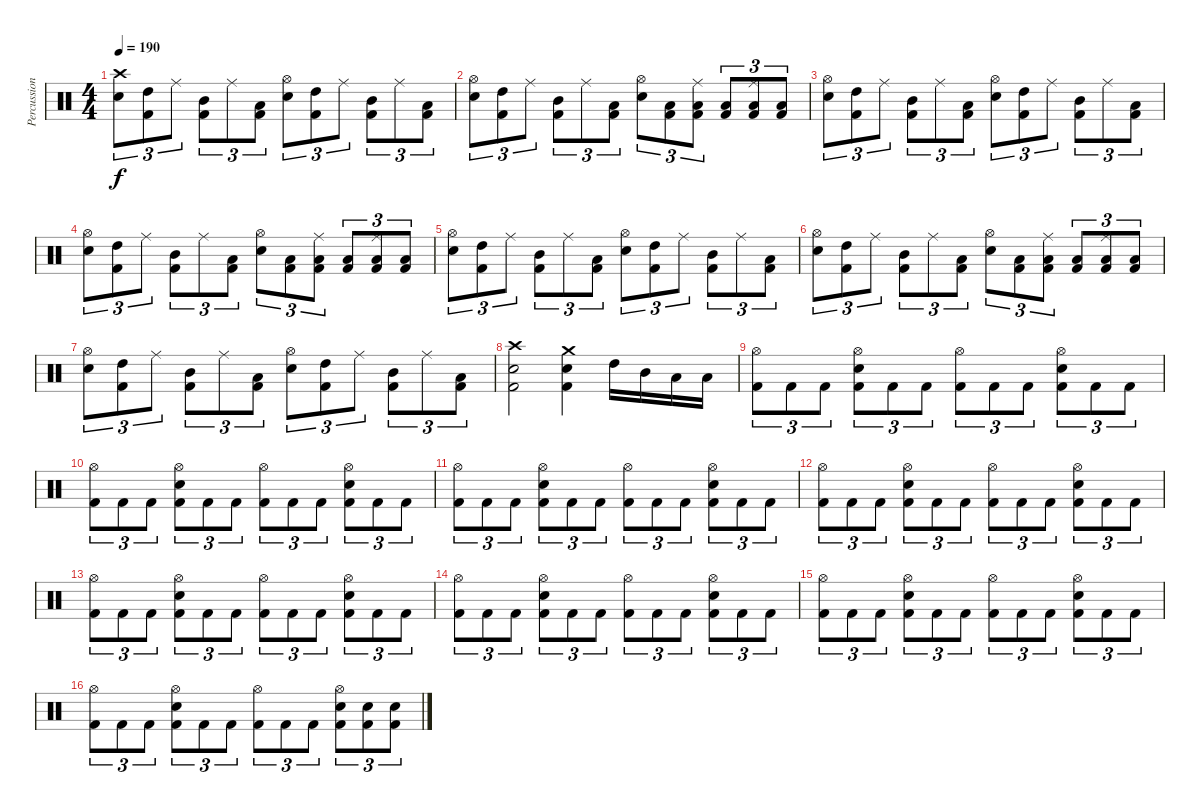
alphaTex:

\track ("Percussions" "Percussion") {instrument percussion}
\staff {score}
\articulation defaults
\ts (4 4)
\tempo 190
\clef neutral
\ks c
("Crash high (hit)" "Snare (hit) 2").8{tu (3 2) dy f} ("High Tom (hit)" "Kick (hit) 2").8{tu (3 2)} "Ride (middle)".8{tu (3 2)} ("Mid Tom (hit)" "Kick (hit) 2").8{tu (3 2)} "Ride (middle)".8{tu (3 2)} ("Low Tom (hit)" "Kick (hit) 2").8{tu (3 2)} ("Hi-Hat (open)" "Snare (hit) 2").8{tu (3 2)} ("High Tom (hit)" "Kick (hit) 2").8{tu (3 2)} "Ride (middle)".8{tu (3 2)} ("Mid Tom (hit)" "Kick (hit) 2").8{tu (3 2)} "Ride (middle)".8{tu (3 2)} ("Low Tom (hit)" "Kick (hit) 2").8{tu (3 2)} |
("Hi-Hat (open)" "Snare (hit) 2").8{tu (3 2)} ("High Tom (hit)" "Kick (hit) 2").8{tu (3 2)} "Ride (middle)".8{tu (3 2)} ("Mid Tom (hit)" "Kick (hit) 2").8{tu (3 2)} "Ride (middle)".8{tu (3 2)} ("Low Tom (hit)" "Kick (hit) 2").8{tu (3 2)} ("Hi-Hat (open)" "Snare (hit) 2").8{tu (3 2)} ("Low Floor Tom (hit)" "Kick (hit) 2").8{tu (3 2)} ("Ride (middle)" "Low Floor Tom (hit)" "Kick (hit) 2").8{tu (3 2)} ("Low Floor Tom (hit)" "Kick (hit) 2").8{tu (3 2)} ("Ride (middle)" "Low Floor Tom (hit)" "Kick (hit) 2").8{tu (3 2)} ("Low Floor Tom (hit)" "Kick (hit) 2").8{tu (3 2)} |
("Hi-Hat (open)" "Snare (hit) 2").8{tu (3 2)} ("High Tom (hit)" "Kick (hit) 2").8{tu (3 2)} "Ride (middle)".8{tu (3 2)} ("Mid Tom (hit)" "Kick (hit) 2").8{tu (3 2)} "Ride (middle)".8{tu (3 2)} ("Low Tom (hit)" "Kick (hit) 2").8{tu (3 2)} ("Hi-Hat (open)" "Snare (hit) 2").8{tu (3 2)} ("High Tom (hit)" "Kick (hit) 2").8{tu (3 2)} "Ride (middle)".8{tu (3 2)} ("Mid Tom (hit)" "Kick (hit) 2").8{tu (3 2)} "Ride (middle)".8{tu (3 2)} ("Low Tom (hit)" "Kick (hit) 2").8{tu (3 2)} |
("Hi-Hat (open)" "Snare (hit) 2").8{tu (3 2)} ("High Tom (hit)" "Kick (hit) 2").8{tu (3 2)} "Ride (middle)".8{tu (3 2)} ("Mid Tom (hit)" "Kick (hit) 2").8{tu (3 2)} "Ride (middle)".8{tu (3 2)} ("Low Tom (hit)" "Kick (hit) 2").8{tu (3 2)} ("Hi-Hat (open)" "Snare (hit) 2").8{tu (3 2)} ("Low Floor Tom (hit)" "Kick (hit) 2").8{tu (3 2)} ("Ride (middle)" "Low Floor Tom (hit)" "Kick (hit) 2").8{tu (3 2)} ("Low Floor Tom (hit)" "Kick (hit) 2").8{tu (3 2)} ("Ride (middle)" "Low Floor Tom (hit)" "Kick (hit) 2").8{tu (3 2)} ("Low Floor Tom (hit)" "Kick (hit) 2").8{tu (3 2)} |
("Hi-Hat (open)" "Snare (hit) 2").8{tu (3 2)} ("High Tom (hit)" "Kick (hit) 2").8{tu (3 2)} "Ride (middle)".8{tu (3 2)} ("Mid Tom (hit)" "Kick (hit) 2").8{tu (3 2)} "Ride (middle)".8{tu (3 2)} ("Low Tom (hit)" "Kick (hit) 2").8{tu (3 2)} ("Hi-Hat (open)" "Snare (hit) 2").8{tu (3 2)} ("High Tom (hit)" "Kick (hit) 2").8{tu (3 2)} "Ride (middle)".8{tu (3 2)} ("Mid Tom (hit)" "Kick (hit) 2").8{tu (3 2)} "Ride (middle)".8{tu (3 2)} ("Low Tom (hit)" "Kick (hit) 2").8{tu (3 2)} |
("Hi-Hat (open)" "Snare (hit) 2").8{tu (3 2)} ("High Tom (hit)" "Kick (hit) 2").8{tu (3 2)} "Ride (middle)".8{tu (3 2)} ("Mid Tom (hit)" "Kick (hit) 2").8{tu (3 2)} "Ride (middle)".8{tu (3 2)} ("Low Tom (hit)" "Kick (hit) 2").8{tu (3 2)} ("Hi-Hat (open)" "Snare (hit) 2").8{tu (3 2)} ("Low Floor Tom (hit)" "Kick (hit) 2").8{tu (3 2)} ("Ride (middle)" "Low Floor Tom (hit)" "Kick (hit) 2").8{tu (3 2)} ("Low Floor Tom (hit)" "Kick (hit) 2").8{tu (3 2)} ("Ride (middle)" "Low Floor Tom (hit)" "Kick (hit) 2").8{tu (3 2)} ("Low Floor Tom (hit)" "Kick (hit) 2").8{tu (3 2)} |
("Hi-Hat (open)" "Snare (hit) 2").8{tu (3 2)} ("High Tom (hit)" "Kick (hit) 2").8{tu (3 2)} "Ride (middle)".8{tu (3 2)} ("Mid Tom (hit)" "Kick (hit) 2").8{tu (3 2)} "Ride (middle)".8{tu (3 2)} ("Low Tom (hit)" "Kick (hit) 2").8{tu (3 2)} ("Hi-Hat (open)" "Snare (hit) 2").8{tu (3 2)} ("High Tom (hit)" "Kick (hit) 2").8{tu (3 2)} "Ride (middle)".8{tu (3 2)} ("Mid Tom (hit)" "Kick (hit) 2").8{tu (3 2)} "Ride (middle)".8{tu (3 2)} ("Low Tom (hit)" "Kick (hit) 2").8{tu (3 2)} |
("Crash high (hit)" "Snare (hit) 2" "Kick (hit) 2").2 ("Crash medium (hit)" "Snare (hit) 2" "Kick (hit) 2").4 "High Tom (hit)".16 "Mid Tom (hit)".16 "Low Tom (hit)".16 "Low Tom (hit)".16 |
("Hi-Hat (open)" "Kick (hit) 2").8{tu (3 2)} "Kick (hit) 2".8{tu (3 2)} "Kick (hit) 2".8{tu (3 2)} ("Hi-Hat (open)" "Snare (hit) 2" "Kick (hit) 2").8{tu (3 2)} "Kick (hit) 2".8{tu (3 2)} "Kick (hit) 2".8{tu (3 2)} ("Hi-Hat (open)" "Kick (hit) 2").8{tu (3 2)} "Kick (hit) 2".8{tu (3 2)} "Kick (hit) 2".8{tu (3 2)} ("Hi-Hat (open)" "Snare (hit) 2" "Kick (hit) 2").8{tu (3 2)} "Kick (hit) 2".8{tu (3 2)} "Kick (hit) 2".8{tu (3 2)} |
("Hi-Hat (open)" "Kick (hit) 2").8{tu (3 2)} "Kick (hit) 2".8{tu (3 2)} "Kick (hit) 2".8{tu (3 2)} ("Hi-Hat (open)" "Snare (hit) 2" "Kick (hit) 2").8{tu (3 2)} "Kick (hit) 2".8{tu (3 2)} "Kick (hit) 2".8{tu (3 2)} ("Hi-Hat (open)" "Kick (hit) 2").8{tu (3 2)} "Kick (hit) 2".8{tu (3 2)} "Kick (hit) 2".8{tu (3 2)} ("Hi-Hat (open)" "Snare (hit) 2" "Kick (hit) 2").8{tu (3 2)} "Kick (hit) 2".8{tu (3 2)} "Kick (hit) 2".8{tu (3 2)} |
("Hi-Hat (open)" "Kick (hit) 2").8{tu (3 2)} "Kick (hit) 2".8{tu (3 2)} "Kick (hit) 2".8{tu (3 2)} ("Hi-Hat (open)" "Snare (hit) 2" "Kick (hit) 2").8{tu (3 2)} "Kick (hit) 2".8{tu (3 2)} "Kick (hit) 2".8{tu (3 2)} ("Hi-Hat (open)" "Kick (hit) 2").8{tu (3 2)} "Kick (hit) 2".8{tu (3 2)} "Kick (hit) 2".8{tu (3 2)} ("Hi-Hat (open)" "Snare (hit) 2" "Kick (hit) 2").8{tu (3 2)} "Kick (hit) 2".8{tu (3 2)} "Kick (hit) 2".8{tu (3 2)} |
("Hi-Hat (open)" "Kick (hit) 2").8{tu (3 2)} "Kick (hit) 2".8{tu (3 2)} "Kick (hit) 2".8{tu (3 2)} ("Hi-Hat (open)" "Snare (hit) 2" "Kick (hit) 2").8{tu (3 2)} "Kick (hit) 2".8{tu (3 2)} "Kick (hit) 2".8{tu (3 2)} ("Hi-Hat (open)" "Kick (hit) 2").8{tu (3 2)} "Kick (hit) 2".8{tu (3 2)} "Kick (hit) 2".8{tu (3 2)} ("Hi-Hat (open)" "Snare (hit) 2" "Kick (hit) 2").8{tu (3 2)} "Kick (hit) 2".8{tu (3 2)} "Kick (hit) 2".8{tu (3 2)} |
("Hi-Hat (open)" "Kick (hit) 2").8{tu (3 2)} "Kick (hit) 2".8{tu (3 2)} "Kick (hit) 2".8{tu (3 2)} ("Hi-Hat (open)" "Snare (hit) 2" "Kick (hit) 2").8{tu (3 2)} "Kick (hit) 2".8{tu (3 2)} "Kick (hit) 2".8{tu (3 2)} ("Hi-Hat (open)" "Kick (hit) 2").8{tu (3 2)} "Kick (hit) 2".8{tu (3 2)} "Kick (hit) 2".8{tu (3 2)} ("Hi-Hat (open)" "Snare (hit) 2" "Kick (hit) 2").8{tu (3 2)} "Kick (hit) 2".8{tu (3 2)} "Kick (hit) 2".8{tu (3 2)} |
("Hi-Hat (open)" "Kick (hit) 2").8{tu (3 2)} "Kick (hit) 2".8{tu (3 2)} "Kick (hit) 2".8{tu (3 2)} ("Hi-Hat (open)" "Snare (hit) 2" "Kick (hit) 2").8{tu (3 2)} "Kick (hit) 2".8{tu (3 2)} "Kick (hit) 2".8{tu (3 2)} ("Hi-Hat (open)" "Kick (hit) 2").8{tu (3 2)} "Kick (hit) 2".8{tu (3 2)} "Kick (hit) 2".8{tu (3 2)} ("Hi-Hat (open)" "Snare (hit) 2" "Kick (hit) 2").8{tu (3 2)} "Kick (hit) 2".8{tu (3 2)} "Kick (hit) 2".8{tu (3 2)} |
("Hi-Hat (open)" "Kick (hit) 2").8{tu (3 2)} "Kick (hit) 2".8{tu (3 2)} "Kick (hit) 2".8{tu (3 2)} ("Hi-Hat (open)" "Snare (hit) 2" "Kick (hit) 2").8{tu (3 2)} "Kick (hit) 2".8{tu (3 2)} "Kick (hit) 2".8{tu (3 2)} ("Hi-Hat (open)" "Kick (hit) 2").8{tu (3 2)} "Kick (hit) 2".8{tu (3 2)} "Kick (hit) 2".8{tu (3 2)} ("Hi-Hat (open)" "Snare (hit) 2" "Kick (hit) 2").8{tu (3 2)} "Kick (hit) 2".8{tu (3 2)} "Kick (hit) 2".8{tu (3 2)} |
("Hi-Hat (open)" "Kick (hit) 2").8{tu (3 2)} "Kick (hit) 2".8{tu (3 2)} "Kick (hit) 2".8{tu (3 2)} ("Hi-Hat (open)" "Snare (hit) 2" "Kick (hit) 2").8{tu (3 2)} "Kick (hit) 2".8{tu (3 2)} "Kick (hit) 2".8{tu (3 2)} ("Hi-Hat (open)" "Kick (hit) 2").8{tu (3 2)} "Kick (hit) 2".8{tu (3 2)} "Kick (hit) 2".8{tu (3 2)} ("Hi-Hat (open)" "Snare (hit) 2" "Kick (hit) 2").8{tu (3 2)} ("Snare (hit) 2" "Kick (hit) 2").8{tu (3 2)} ("Snare (hit) 2" "Kick (hit) 2").8{tu (3 2)}
